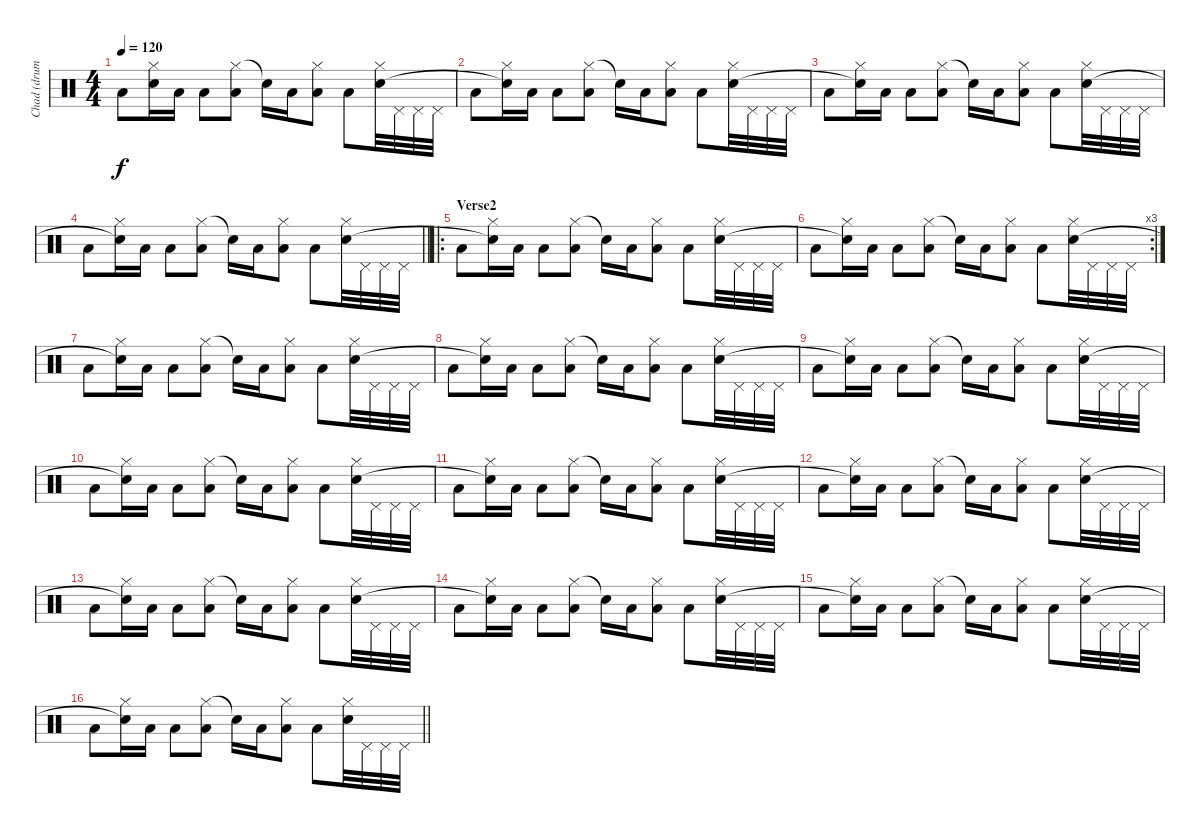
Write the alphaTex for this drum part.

\track ("Chad (drums)" "Chad (drum") {instrument percussion}
\staff {score}
\articulation defaults
\ts (4 4)
\tempo 120
\clef neutral
\ks c "Low Tom (hit)".8{dy f}
("Hi-Hat (closed)" "Snare (hit)"{t}).16 "Low Tom (hit)".16 "Low Floor Tom (hit)".8 ("Hi-Hat (closed)" "Low Tom (hit)").8 "Snare (hit)"{t}.16 "Low Tom (hit)".16 ("Hi-Hat (closed)" "Low Floor Tom (hit)").8 "Low Tom (hit)".8 ("Hi-Hat (closed)" "Snare (hit) 2").32 "Pedal Hi-Hat (hit)".32 "Pedal Hi-Hat (hit)".32 "Pedal Hi-Hat (hit)".32 |
"Low Tom (hit)".8 ("Hi-Hat (closed)" "Snare (hit)"{t}).16 "Low Tom (hit)".16 "Low Floor Tom (hit)".8 ("Hi-Hat (closed)" "Low Tom (hit)").8 "Snare (hit)"{t}.16 "Low Tom (hit)".16 ("Hi-Hat (closed)" "Low Floor Tom (hit)").8 "Low Tom (hit)".8 ("Hi-Hat (closed)" "Snare (hit) 2").32 "Pedal Hi-Hat (hit)".32 "Pedal Hi-Hat (hit)".32 "Pedal Hi-Hat (hit)".32 |
"Low Tom (hit)".8 ("Hi-Hat (closed)" "Snare (hit)"{t}).16 "Low Tom (hit)".16 "Low Floor Tom (hit)".8 ("Hi-Hat (closed)" "Low Tom (hit)").8 "Snare (hit)"{t}.16 "Low Tom (hit)".16 ("Hi-Hat (closed)" "Low Floor Tom (hit)").8 "Low Tom (hit)".8 ("Hi-Hat (closed)" "Snare (hit) 2").32 "Pedal Hi-Hat (hit)".32 "Pedal Hi-Hat (hit)".32 "Pedal Hi-Hat (hit)".32 |
\barLineRight lightlight "Low Tom (hit)".8
("Hi-Hat (closed)" "Snare (hit)"{t}).16 "Low Tom (hit)".16 "Low Floor Tom (hit)".8 ("Hi-Hat (closed)" "Low Tom (hit)").8 "Snare (hit)"{t}.16 "Low Tom (hit)".16 ("Hi-Hat (closed)" "Low Floor Tom (hit)").8 "Low Tom (hit)".8 ("Hi-Hat (closed)" "Snare (hit) 2").32 "Pedal Hi-Hat (hit)".32 "Pedal Hi-Hat (hit)".32 "Pedal Hi-Hat (hit)".32 |
\ro
\section ("" "Verse2")
"Low Tom (hit)".8 ("Hi-Hat (closed)" "Snare (hit)"{t}).16 "Low Tom (hit)".16 "Low Floor Tom (hit)".8 ("Hi-Hat (closed)" "Low Tom (hit)").8 "Snare (hit)"{t}.16 "Low Tom (hit)".16 ("Hi-Hat (closed)" "Low Floor Tom (hit)").8 "Low Tom (hit)".8 ("Hi-Hat (closed)" "Snare (hit) 2").32 "Pedal Hi-Hat (hit)".32 "Pedal Hi-Hat (hit)".32 "Pedal Hi-Hat (hit)".32 |
\rc 3 "Low Tom (hit)".8
("Hi-Hat (closed)" "Snare (hit)"{t}).16 "Low Tom (hit)".16 "Low Floor Tom (hit)".8 ("Hi-Hat (closed)" "Low Tom (hit)").8 "Snare (hit)"{t}.16 "Low Tom (hit)".16 ("Hi-Hat (closed)" "Low Floor Tom (hit)").8 "Low Tom (hit)".8 ("Hi-Hat (closed)" "Snare (hit) 2").32 "Pedal Hi-Hat (hit)".32 "Pedal Hi-Hat (hit)".32 "Pedal Hi-Hat (hit)".32 |
"Low Tom (hit)".8 ("Hi-Hat (closed)" "Snare (hit)"{t}).16 "Low Tom (hit)".16 "Low Floor Tom (hit)".8 ("Hi-Hat (closed)" "Low Tom (hit)").8 "Snare (hit)"{t}.16 "Low Tom (hit)".16 ("Hi-Hat (closed)" "Low Floor Tom (hit)").8 "Low Tom (hit)".8 ("Hi-Hat (closed)" "Snare (hit) 2").32 "Pedal Hi-Hat (hit)".32 "Pedal Hi-Hat (hit)".32 "Pedal Hi-Hat (hit)".32 |
"Low Tom (hit)".8 ("Hi-Hat (closed)" "Snare (hit)"{t}).16 "Low Tom (hit)".16 "Low Floor Tom (hit)".8 ("Hi-Hat (closed)" "Low Tom (hit)").8 "Snare (hit)"{t}.16 "Low Tom (hit)".16 ("Hi-Hat (closed)" "Low Floor Tom (hit)").8 "Low Tom (hit)".8 ("Hi-Hat (closed)" "Snare (hit) 2").32 "Pedal Hi-Hat (hit)".32 "Pedal Hi-Hat (hit)".32 "Pedal Hi-Hat (hit)".32 |
"Low Tom (hit)".8 ("Hi-Hat (closed)" "Snare (hit)"{t}).16 "Low Tom (hit)".16 "Low Floor Tom (hit)".8 ("Hi-Hat (closed)" "Low Tom (hit)").8 "Snare (hit)"{t}.16 "Low Tom (hit)".16 ("Hi-Hat (closed)" "Low Floor Tom (hit)").8 "Low Tom (hit)".8 ("Hi-Hat (closed)" "Snare (hit) 2").32 "Pedal Hi-Hat (hit)".32 "Pedal Hi-Hat (hit)".32 "Pedal Hi-Hat (hit)".32 |
"Low Tom (hit)".8 ("Hi-Hat (closed)" "Snare (hit)"{t}).16 "Low Tom (hit)".16 "Low Floor Tom (hit)".8 ("Hi-Hat (closed)" "Low Tom (hit)").8 "Snare (hit)"{t}.16 "Low Tom (hit)".16 ("Hi-Hat (closed)" "Low Floor Tom (hit)").8 "Low Tom (hit)".8 ("Hi-Hat (closed)" "Snare (hit) 2").32 "Pedal Hi-Hat (hit)".32 "Pedal Hi-Hat (hit)".32 "Pedal Hi-Hat (hit)".32 |
"Low Tom (hit)".8 ("Hi-Hat (closed)" "Snare (hit)"{t}).16 "Low Tom (hit)".16 "Low Floor Tom (hit)".8 ("Hi-Hat (closed)" "Low Tom (hit)").8 "Snare (hit)"{t}.16 "Low Tom (hit)".16 ("Hi-Hat (closed)" "Low Floor Tom (hit)").8 "Low Tom (hit)".8 ("Hi-Hat (closed)" "Snare (hit) 2").32 "Pedal Hi-Hat (hit)".32 "Pedal Hi-Hat (hit)".32 "Pedal Hi-Hat (hit)".32 |
"Low Tom (hit)".8 ("Hi-Hat (closed)" "Snare (hit)"{t}).16 "Low Tom (hit)".16 "Low Floor Tom (hit)".8 ("Hi-Hat (closed)" "Low Tom (hit)").8 "Snare (hit)"{t}.16 "Low Tom (hit)".16 ("Hi-Hat (closed)" "Low Floor Tom (hit)").8 "Low Tom (hit)".8 ("Hi-Hat (closed)" "Snare (hit) 2").32 "Pedal Hi-Hat (hit)".32 "Pedal Hi-Hat (hit)".32 "Pedal Hi-Hat (hit)".32 |
"Low Tom (hit)".8 ("Hi-Hat (closed)" "Snare (hit)"{t}).16 "Low Tom (hit)".16 "Low Floor Tom (hit)".8 ("Hi-Hat (closed)" "Low Tom (hit)").8 "Snare (hit)"{t}.16 "Low Tom (hit)".16 ("Hi-Hat (closed)" "Low Floor Tom (hit)").8 "Low Tom (hit)".8 ("Hi-Hat (closed)" "Snare (hit) 2").32 "Pedal Hi-Hat (hit)".32 "Pedal Hi-Hat (hit)".32 "Pedal Hi-Hat (hit)".32 |
"Low Tom (hit)".8 ("Hi-Hat (closed)" "Snare (hit)"{t}).16 "Low Tom (hit)".16 "Low Floor Tom (hit)".8 ("Hi-Hat (closed)" "Low Tom (hit)").8 "Snare (hit)"{t}.16 "Low Tom (hit)".16 ("Hi-Hat (closed)" "Low Floor Tom (hit)").8 "Low Tom (hit)".8 ("Hi-Hat (closed)" "Snare (hit) 2").32 "Pedal Hi-Hat (hit)".32 "Pedal Hi-Hat (hit)".32 "Pedal Hi-Hat (hit)".32 |
"Low Tom (hit)".8 ("Hi-Hat (closed)" "Snare (hit)"{t}).16 "Low Tom (hit)".16 "Low Floor Tom (hit)".8 ("Hi-Hat (closed)" "Low Tom (hit)").8 "Snare (hit)"{t}.16 "Low Tom (hit)".16 ("Hi-Hat (closed)" "Low Floor Tom (hit)").8 "Low Tom (hit)".8 ("Hi-Hat (closed)" "Snare (hit) 2").32 "Pedal Hi-Hat (hit)".32 "Pedal Hi-Hat (hit)".32 "Pedal Hi-Hat (hit)".32 |
\barLineRight lightlight "Low Tom (hit)".8
("Hi-Hat (closed)" "Snare (hit)"{t}).16 "Low Tom (hit)".16 "Low Floor Tom (hit)".8 ("Hi-Hat (closed)" "Low Tom (hit)").8 "Snare (hit)"{t}.16 "Low Tom (hit)".16 ("Hi-Hat (closed)" "Low Floor Tom (hit)").8 "Low Tom (hit)".8 ("Hi-Hat (closed)" "Snare (hit) 2").32 "Pedal Hi-Hat (hit)".32 "Pedal Hi-Hat (hit)".32 "Pedal Hi-Hat (hit)".32
